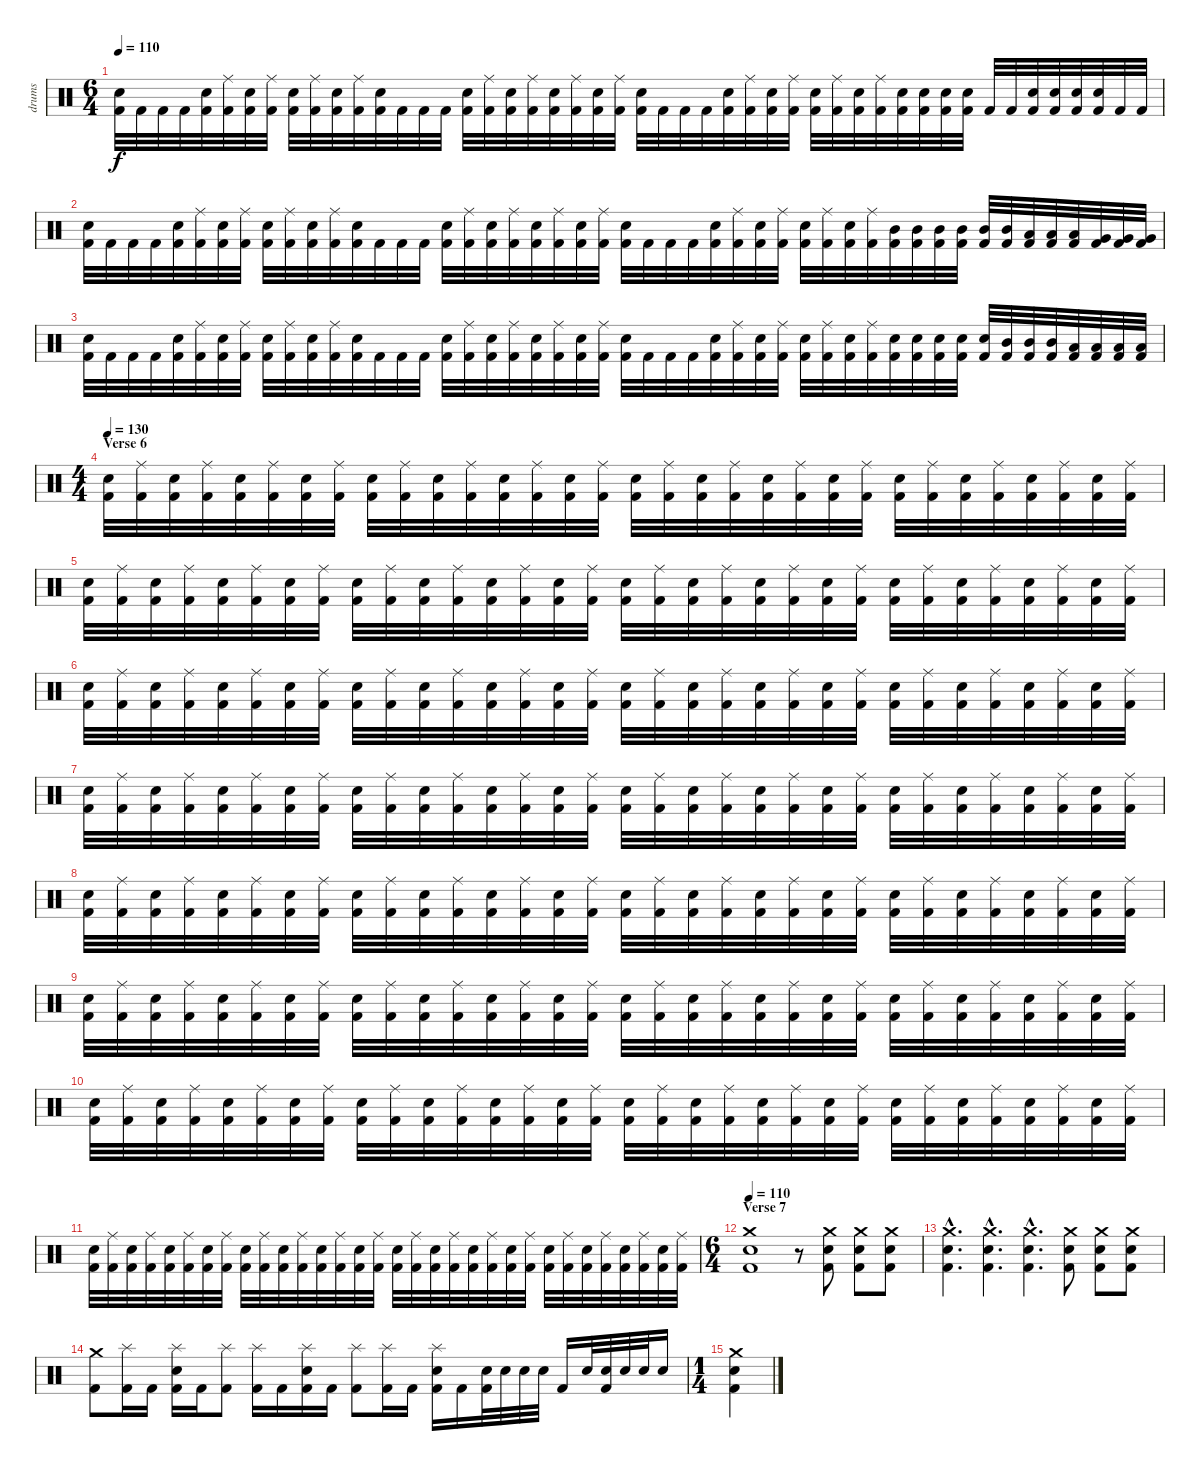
\track ("drums" "drums") {instrument percussion}
\staff {score}
\articulation defaults
\ts (6 4)
\tempo 110
\clef neutral
\ks c
("Electric Snare (hit)" "Kick (hit) 2").32{dy f} "Kick (hit) 2".32 "Kick (hit) 2".32 "Kick (hit) 2".32 ("Electric Snare (hit)" "Kick (hit) 2").32 ("Ride (middle)" "Kick (hit) 2").32 ("Electric Snare (hit)" "Kick (hit) 2").32 ("Ride (middle)" "Kick (hit) 2").32 ("Electric Snare (hit)" "Kick (hit) 2").32 ("Ride (middle)" "Kick (hit) 2").32 ("Electric Snare (hit)" "Kick (hit) 2").32 ("Ride (middle)" "Kick (hit) 2").32 ("Electric Snare (hit)" "Kick (hit) 2").32 "Kick (hit) 2".32 "Kick (hit) 2".32 "Kick (hit) 2".32 ("Electric Snare (hit)" "Kick (hit) 2").32 ("Ride (middle)" "Kick (hit) 2").32 ("Electric Snare (hit)" "Kick (hit) 2").32 ("Ride (middle)" "Kick (hit) 2").32 ("Electric Snare (hit)" "Kick (hit) 2").32 ("Ride (middle)" "Kick (hit) 2").32 ("Electric Snare (hit)" "Kick (hit) 2").32 ("Ride (middle)" "Kick (hit) 2").32 ("Electric Snare (hit)" "Kick (hit) 2").32 "Kick (hit) 2".32 "Kick (hit) 2".32 "Kick (hit) 2".32 ("Electric Snare (hit)" "Kick (hit) 2").32 ("Ride (middle)" "Kick (hit) 2").32 ("Electric Snare (hit)" "Kick (hit) 2").32 ("Ride (middle)" "Kick (hit) 2").32 ("Electric Snare (hit)" "Kick (hit) 2").32 ("Ride (middle)" "Kick (hit) 2").32 ("Electric Snare (hit)" "Kick (hit) 2").32 ("Ride (middle)" "Kick (hit) 2").32 ("Electric Snare (hit)" "Kick (hit) 2").32 ("Electric Snare (hit)" "Kick (hit) 2").32 ("Electric Snare (hit)" "Kick (hit) 2").32 ("Electric Snare (hit)" "Kick (hit) 2").32 "Kick (hit) 2".32 "Kick (hit) 2".32 ("Electric Snare (hit)" "Kick (hit) 2").32 ("Electric Snare (hit)" "Kick (hit) 2").32 ("Electric Snare (hit)" "Kick (hit) 2").32 ("Electric Snare (hit)" "Kick (hit) 2").32 "Kick (hit) 2".32 "Kick (hit) 2".32 |
("Electric Snare (hit)" "Kick (hit) 2").32 "Kick (hit) 2".32 "Kick (hit) 2".32 "Kick (hit) 2".32 ("Electric Snare (hit)" "Kick (hit) 2").32 ("Ride (middle)" "Kick (hit) 2").32 ("Electric Snare (hit)" "Kick (hit) 2").32 ("Ride (middle)" "Kick (hit) 2").32 ("Electric Snare (hit)" "Kick (hit) 2").32 ("Ride (middle)" "Kick (hit) 2").32 ("Electric Snare (hit)" "Kick (hit) 2").32 ("Ride (middle)" "Kick (hit) 2").32 ("Electric Snare (hit)" "Kick (hit) 2").32 "Kick (hit) 2".32 "Kick (hit) 2".32 "Kick (hit) 2".32 ("Electric Snare (hit)" "Kick (hit) 2").32 ("Ride (middle)" "Kick (hit) 2").32 ("Electric Snare (hit)" "Kick (hit) 2").32 ("Ride (middle)" "Kick (hit) 2").32 ("Electric Snare (hit)" "Kick (hit) 2").32 ("Ride (middle)" "Kick (hit) 2").32 ("Electric Snare (hit)" "Kick (hit) 2").32 ("Ride (middle)" "Kick (hit) 2").32 ("Electric Snare (hit)" "Kick (hit) 2").32 "Kick (hit) 2".32 "Kick (hit) 2".32 "Kick (hit) 2".32 ("Electric Snare (hit)" "Kick (hit) 2").32 ("Ride (middle)" "Kick (hit) 2").32 ("Electric Snare (hit)" "Kick (hit) 2").32 ("Ride (middle)" "Kick (hit) 2").32 ("Electric Snare (hit)" "Kick (hit) 2").32 ("Ride (middle)" "Kick (hit) 2").32 ("Electric Snare (hit)" "Kick (hit) 2").32 ("Ride (middle)" "Kick (hit) 2").32 ("Mid Tom (hit)" "Kick (hit) 2").32 ("Mid Tom (hit)" "Kick (hit) 2").32 ("Mid Tom (hit)" "Kick (hit) 2").32 ("Mid Tom (hit)" "Kick (hit) 2").32 ("Mid Tom (hit)" "Kick (hit) 2").32 ("Mid Tom (hit)" "Kick (hit) 2").32 ("Low Tom (hit)" "Kick (hit) 2").32 ("Low Tom (hit)" "Kick (hit) 2").32 ("Low Tom (hit)" "Kick (hit) 2").32 ("Very Low Tom (hit)" "Kick (hit) 2").32 ("Very Low Tom (hit)" "Kick (hit) 2").32 ("Very Low Tom (hit)" "Kick (hit) 2").32 |
("Electric Snare (hit)" "Kick (hit) 2").32 "Kick (hit) 2".32 "Kick (hit) 2".32 "Kick (hit) 2".32 ("Electric Snare (hit)" "Kick (hit) 2").32 ("Ride (middle)" "Kick (hit) 2").32 ("Electric Snare (hit)" "Kick (hit) 2").32 ("Ride (middle)" "Kick (hit) 2").32 ("Electric Snare (hit)" "Kick (hit) 2").32 ("Ride (middle)" "Kick (hit) 2").32 ("Electric Snare (hit)" "Kick (hit) 2").32 ("Ride (middle)" "Kick (hit) 2").32 ("Electric Snare (hit)" "Kick (hit) 2").32 "Kick (hit) 2".32 "Kick (hit) 2".32 "Kick (hit) 2".32 ("Electric Snare (hit)" "Kick (hit) 2").32 ("Ride (middle)" "Kick (hit) 2").32 ("Electric Snare (hit)" "Kick (hit) 2").32 ("Ride (middle)" "Kick (hit) 2").32 ("Electric Snare (hit)" "Kick (hit) 2").32 ("Ride (middle)" "Kick (hit) 2").32 ("Electric Snare (hit)" "Kick (hit) 2").32 ("Ride (middle)" "Kick (hit) 2").32 ("Electric Snare (hit)" "Kick (hit) 2").32 "Kick (hit) 2".32 "Kick (hit) 2".32 "Kick (hit) 2".32 ("Electric Snare (hit)" "Kick (hit) 2").32 ("Ride (middle)" "Kick (hit) 2").32 ("Electric Snare (hit)" "Kick (hit) 2").32 ("Ride (middle)" "Kick (hit) 2").32 ("Electric Snare (hit)" "Kick (hit) 2").32 ("Ride (middle)" "Kick (hit) 2").32 ("Electric Snare (hit)" "Kick (hit) 2").32 ("Ride (middle)" "Kick (hit) 2").32 ("Electric Snare (hit)" "Kick (hit) 2").32 ("Electric Snare (hit)" "Kick (hit) 2").32 ("Electric Snare (hit)" "Kick (hit) 2").32 ("Electric Snare (hit)" "Kick (hit) 2").32 ("Electric Snare (hit)" "Kick (hit) 2").32 ("Mid Tom (hit)" "Kick (hit) 2").32 ("Mid Tom (hit)" "Kick (hit) 2").32 ("Mid Tom (hit)" "Kick (hit) 2").32 ("Low Tom (hit)" "Kick (hit) 2").32 ("Low Tom (hit)" "Kick (hit) 2").32 ("Low Tom (hit)" "Kick (hit) 2").32 ("Low Tom (hit)" "Kick (hit) 2").32 |
\ts (4 4)
\section ("" "Verse 6")
\tempo 130
("Electric Snare (hit)" "Kick (hit) 2").32 ("Ride (middle)" "Kick (hit) 2").32 ("Electric Snare (hit)" "Kick (hit) 2").32 ("Ride (middle)" "Kick (hit) 2").32 ("Electric Snare (hit)" "Kick (hit) 2").32 ("Ride (middle)" "Kick (hit) 2").32 ("Electric Snare (hit)" "Kick (hit) 2").32 ("Ride (middle)" "Kick (hit) 2").32 ("Electric Snare (hit)" "Kick (hit) 2").32 ("Ride (middle)" "Kick (hit) 2").32 ("Electric Snare (hit)" "Kick (hit) 2").32 ("Ride (middle)" "Kick (hit) 2").32 ("Electric Snare (hit)" "Kick (hit) 2").32 ("Ride (middle)" "Kick (hit) 2").32 ("Electric Snare (hit)" "Kick (hit) 2").32 ("Ride (middle)" "Kick (hit) 2").32 ("Electric Snare (hit)" "Kick (hit) 2").32 ("Ride (middle)" "Kick (hit) 2").32 ("Electric Snare (hit)" "Kick (hit) 2").32 ("Ride (middle)" "Kick (hit) 2").32 ("Electric Snare (hit)" "Kick (hit) 2").32 ("Ride (middle)" "Kick (hit) 2").32 ("Electric Snare (hit)" "Kick (hit) 2").32 ("Ride (middle)" "Kick (hit) 2").32 ("Electric Snare (hit)" "Kick (hit) 2").32 ("Ride (middle)" "Kick (hit) 2").32 ("Electric Snare (hit)" "Kick (hit) 2").32 ("Ride (middle)" "Kick (hit) 2").32 ("Electric Snare (hit)" "Kick (hit) 2").32 ("Ride (middle)" "Kick (hit) 2").32 ("Electric Snare (hit)" "Kick (hit) 2").32 ("Ride (middle)" "Kick (hit) 2").32 |
("Electric Snare (hit)" "Kick (hit) 2").32 ("Ride (middle)" "Kick (hit) 2").32 ("Electric Snare (hit)" "Kick (hit) 2").32 ("Ride (middle)" "Kick (hit) 2").32 ("Electric Snare (hit)" "Kick (hit) 2").32 ("Ride (middle)" "Kick (hit) 2").32 ("Electric Snare (hit)" "Kick (hit) 2").32 ("Ride (middle)" "Kick (hit) 2").32 ("Electric Snare (hit)" "Kick (hit) 2").32 ("Ride (middle)" "Kick (hit) 2").32 ("Electric Snare (hit)" "Kick (hit) 2").32 ("Ride (middle)" "Kick (hit) 2").32 ("Electric Snare (hit)" "Kick (hit) 2").32 ("Ride (middle)" "Kick (hit) 2").32 ("Electric Snare (hit)" "Kick (hit) 2").32 ("Ride (middle)" "Kick (hit) 2").32 ("Electric Snare (hit)" "Kick (hit) 2").32 ("Ride (middle)" "Kick (hit) 2").32 ("Electric Snare (hit)" "Kick (hit) 2").32 ("Ride (middle)" "Kick (hit) 2").32 ("Electric Snare (hit)" "Kick (hit) 2").32 ("Ride (middle)" "Kick (hit) 2").32 ("Electric Snare (hit)" "Kick (hit) 2").32 ("Ride (middle)" "Kick (hit) 2").32 ("Electric Snare (hit)" "Kick (hit) 2").32 ("Ride (middle)" "Kick (hit) 2").32 ("Electric Snare (hit)" "Kick (hit) 2").32 ("Ride (middle)" "Kick (hit) 2").32 ("Electric Snare (hit)" "Kick (hit) 2").32 ("Ride (middle)" "Kick (hit) 2").32 ("Electric Snare (hit)" "Kick (hit) 2").32 ("Ride (middle)" "Kick (hit) 2").32 |
("Electric Snare (hit)" "Kick (hit) 2").32 ("Ride (middle)" "Kick (hit) 2").32 ("Electric Snare (hit)" "Kick (hit) 2").32 ("Ride (middle)" "Kick (hit) 2").32 ("Electric Snare (hit)" "Kick (hit) 2").32 ("Ride (middle)" "Kick (hit) 2").32 ("Electric Snare (hit)" "Kick (hit) 2").32 ("Ride (middle)" "Kick (hit) 2").32 ("Electric Snare (hit)" "Kick (hit) 2").32 ("Ride (middle)" "Kick (hit) 2").32 ("Electric Snare (hit)" "Kick (hit) 2").32 ("Ride (middle)" "Kick (hit) 2").32 ("Electric Snare (hit)" "Kick (hit) 2").32 ("Ride (middle)" "Kick (hit) 2").32 ("Electric Snare (hit)" "Kick (hit) 2").32 ("Ride (middle)" "Kick (hit) 2").32 ("Electric Snare (hit)" "Kick (hit) 2").32 ("Ride (middle)" "Kick (hit) 2").32 ("Electric Snare (hit)" "Kick (hit) 2").32 ("Ride (middle)" "Kick (hit) 2").32 ("Electric Snare (hit)" "Kick (hit) 2").32 ("Ride (middle)" "Kick (hit) 2").32 ("Electric Snare (hit)" "Kick (hit) 2").32 ("Ride (middle)" "Kick (hit) 2").32 ("Electric Snare (hit)" "Kick (hit) 2").32 ("Ride (middle)" "Kick (hit) 2").32 ("Electric Snare (hit)" "Kick (hit) 2").32 ("Ride (middle)" "Kick (hit) 2").32 ("Electric Snare (hit)" "Kick (hit) 2").32 ("Ride (middle)" "Kick (hit) 2").32 ("Electric Snare (hit)" "Kick (hit) 2").32 ("Ride (middle)" "Kick (hit) 2").32 |
("Electric Snare (hit)" "Kick (hit) 2").32 ("Ride (middle)" "Kick (hit) 2").32 ("Electric Snare (hit)" "Kick (hit) 2").32 ("Ride (middle)" "Kick (hit) 2").32 ("Electric Snare (hit)" "Kick (hit) 2").32 ("Ride (middle)" "Kick (hit) 2").32 ("Electric Snare (hit)" "Kick (hit) 2").32 ("Ride (middle)" "Kick (hit) 2").32 ("Electric Snare (hit)" "Kick (hit) 2").32 ("Ride (middle)" "Kick (hit) 2").32 ("Electric Snare (hit)" "Kick (hit) 2").32 ("Ride (middle)" "Kick (hit) 2").32 ("Electric Snare (hit)" "Kick (hit) 2").32 ("Ride (middle)" "Kick (hit) 2").32 ("Electric Snare (hit)" "Kick (hit) 2").32 ("Ride (middle)" "Kick (hit) 2").32 ("Electric Snare (hit)" "Kick (hit) 2").32 ("Ride (middle)" "Kick (hit) 2").32 ("Electric Snare (hit)" "Kick (hit) 2").32 ("Ride (middle)" "Kick (hit) 2").32 ("Electric Snare (hit)" "Kick (hit) 2").32 ("Ride (middle)" "Kick (hit) 2").32 ("Electric Snare (hit)" "Kick (hit) 2").32 ("Ride (middle)" "Kick (hit) 2").32 ("Electric Snare (hit)" "Kick (hit) 2").32 ("Ride (middle)" "Kick (hit) 2").32 ("Electric Snare (hit)" "Kick (hit) 2").32 ("Ride (middle)" "Kick (hit) 2").32 ("Electric Snare (hit)" "Kick (hit) 2").32 ("Ride (middle)" "Kick (hit) 2").32 ("Electric Snare (hit)" "Kick (hit) 2").32 ("Ride (middle)" "Kick (hit) 2").32 |
("Electric Snare (hit)" "Kick (hit) 2").32 ("Ride (middle)" "Kick (hit) 2").32 ("Electric Snare (hit)" "Kick (hit) 2").32 ("Ride (middle)" "Kick (hit) 2").32 ("Electric Snare (hit)" "Kick (hit) 2").32 ("Ride (middle)" "Kick (hit) 2").32 ("Electric Snare (hit)" "Kick (hit) 2").32 ("Ride (middle)" "Kick (hit) 2").32 ("Electric Snare (hit)" "Kick (hit) 2").32 ("Ride (middle)" "Kick (hit) 2").32 ("Electric Snare (hit)" "Kick (hit) 2").32 ("Ride (middle)" "Kick (hit) 2").32 ("Electric Snare (hit)" "Kick (hit) 2").32 ("Ride (middle)" "Kick (hit) 2").32 ("Electric Snare (hit)" "Kick (hit) 2").32 ("Ride (middle)" "Kick (hit) 2").32 ("Electric Snare (hit)" "Kick (hit) 2").32 ("Ride (middle)" "Kick (hit) 2").32 ("Electric Snare (hit)" "Kick (hit) 2").32 ("Ride (middle)" "Kick (hit) 2").32 ("Electric Snare (hit)" "Kick (hit) 2").32 ("Ride (middle)" "Kick (hit) 2").32 ("Electric Snare (hit)" "Kick (hit) 2").32 ("Ride (middle)" "Kick (hit) 2").32 ("Electric Snare (hit)" "Kick (hit) 2").32 ("Ride (middle)" "Kick (hit) 2").32 ("Electric Snare (hit)" "Kick (hit) 2").32 ("Ride (middle)" "Kick (hit) 2").32 ("Electric Snare (hit)" "Kick (hit) 2").32 ("Ride (middle)" "Kick (hit) 2").32 ("Electric Snare (hit)" "Kick (hit) 2").32 ("Ride (middle)" "Kick (hit) 2").32 |
("Electric Snare (hit)" "Kick (hit) 2").32 ("Ride (middle)" "Kick (hit) 2").32 ("Electric Snare (hit)" "Kick (hit) 2").32 ("Ride (middle)" "Kick (hit) 2").32 ("Electric Snare (hit)" "Kick (hit) 2").32 ("Ride (middle)" "Kick (hit) 2").32 ("Electric Snare (hit)" "Kick (hit) 2").32 ("Ride (middle)" "Kick (hit) 2").32 ("Electric Snare (hit)" "Kick (hit) 2").32 ("Ride (middle)" "Kick (hit) 2").32 ("Electric Snare (hit)" "Kick (hit) 2").32 ("Ride (middle)" "Kick (hit) 2").32 ("Electric Snare (hit)" "Kick (hit) 2").32 ("Ride (middle)" "Kick (hit) 2").32 ("Electric Snare (hit)" "Kick (hit) 2").32 ("Ride (middle)" "Kick (hit) 2").32 ("Electric Snare (hit)" "Kick (hit) 2").32 ("Ride (middle)" "Kick (hit) 2").32 ("Electric Snare (hit)" "Kick (hit) 2").32 ("Ride (middle)" "Kick (hit) 2").32 ("Electric Snare (hit)" "Kick (hit) 2").32 ("Ride (middle)" "Kick (hit) 2").32 ("Electric Snare (hit)" "Kick (hit) 2").32 ("Ride (middle)" "Kick (hit) 2").32 ("Electric Snare (hit)" "Kick (hit) 2").32 ("Ride (middle)" "Kick (hit) 2").32 ("Electric Snare (hit)" "Kick (hit) 2").32 ("Ride (middle)" "Kick (hit) 2").32 ("Electric Snare (hit)" "Kick (hit) 2").32 ("Ride (middle)" "Kick (hit) 2").32 ("Electric Snare (hit)" "Kick (hit) 2").32 ("Ride (middle)" "Kick (hit) 2").32 |
("Electric Snare (hit)" "Kick (hit) 2").32 ("Ride (middle)" "Kick (hit) 2").32 ("Electric Snare (hit)" "Kick (hit) 2").32 ("Ride (middle)" "Kick (hit) 2").32 ("Electric Snare (hit)" "Kick (hit) 2").32 ("Ride (middle)" "Kick (hit) 2").32 ("Electric Snare (hit)" "Kick (hit) 2").32 ("Ride (middle)" "Kick (hit) 2").32 ("Electric Snare (hit)" "Kick (hit) 2").32 ("Ride (middle)" "Kick (hit) 2").32 ("Electric Snare (hit)" "Kick (hit) 2").32 ("Ride (middle)" "Kick (hit) 2").32 ("Electric Snare (hit)" "Kick (hit) 2").32 ("Ride (middle)" "Kick (hit) 2").32 ("Electric Snare (hit)" "Kick (hit) 2").32 ("Ride (middle)" "Kick (hit) 2").32 ("Electric Snare (hit)" "Kick (hit) 2").32 ("Ride (middle)" "Kick (hit) 2").32 ("Electric Snare (hit)" "Kick (hit) 2").32 ("Ride (middle)" "Kick (hit) 2").32 ("Electric Snare (hit)" "Kick (hit) 2").32 ("Ride (middle)" "Kick (hit) 2").32 ("Electric Snare (hit)" "Kick (hit) 2").32 ("Ride (middle)" "Kick (hit) 2").32 ("Electric Snare (hit)" "Kick (hit) 2").32 ("Ride (middle)" "Kick (hit) 2").32 ("Electric Snare (hit)" "Kick (hit) 2").32 ("Ride (middle)" "Kick (hit) 2").32 ("Electric Snare (hit)" "Kick (hit) 2").32 ("Ride (middle)" "Kick (hit) 2").32 ("Electric Snare (hit)" "Kick (hit) 2").32 ("Ride (middle)" "Kick (hit) 2").32 |
("Electric Snare (hit)" "Kick (hit) 2").32 ("Ride (middle)" "Kick (hit) 2").32 ("Electric Snare (hit)" "Kick (hit) 2").32 ("Ride (middle)" "Kick (hit) 2").32 ("Electric Snare (hit)" "Kick (hit) 2").32 ("Ride (middle)" "Kick (hit) 2").32 ("Electric Snare (hit)" "Kick (hit) 2").32 ("Ride (middle)" "Kick (hit) 2").32 ("Electric Snare (hit)" "Kick (hit) 2").32 ("Ride (middle)" "Kick (hit) 2").32 ("Electric Snare (hit)" "Kick (hit) 2").32 ("Ride (middle)" "Kick (hit) 2").32 ("Electric Snare (hit)" "Kick (hit) 2").32 ("Ride (middle)" "Kick (hit) 2").32 ("Electric Snare (hit)" "Kick (hit) 2").32 ("Ride (middle)" "Kick (hit) 2").32 ("Electric Snare (hit)" "Kick (hit) 2").32 ("Ride (middle)" "Kick (hit) 2").32 ("Electric Snare (hit)" "Kick (hit) 2").32 ("Ride (middle)" "Kick (hit) 2").32 ("Electric Snare (hit)" "Kick (hit) 2").32 ("Ride (middle)" "Kick (hit) 2").32 ("Electric Snare (hit)" "Kick (hit) 2").32 ("Ride (middle)" "Kick (hit) 2").32 ("Electric Snare (hit)" "Kick (hit) 2").32 ("Ride (middle)" "Kick (hit) 2").32 ("Electric Snare (hit)" "Kick (hit) 2").32 ("Ride (middle)" "Kick (hit) 2").32 ("Electric Snare (hit)" "Kick (hit) 2").32 ("Ride (middle)" "Kick (hit) 2").32 ("Electric Snare (hit)" "Kick (hit) 2").32 ("Ride (middle)" "Kick (hit) 2").32 |
\ts (6 4)
\section ("" "Verse 7")
\tempo 110
("Crash medium (hit)" "Electric Snare (hit)" "Kick (hit) 2").1 r.8 ("Crash medium (hit)" "Electric Snare (hit)" "Kick (hit) 2").8 ("Crash medium (hit)" "Electric Snare (hit)" "Kick (hit) 2").8 ("Crash medium (hit)" "Electric Snare (hit)" "Kick (hit) 2").8 |
("Crash medium (hit)"{hac} "Electric Snare (hit)"{hac} "Kick (hit) 2"{hac}).4{d} ("Crash medium (hit)"{hac} "Electric Snare (hit)"{hac} "Kick (hit) 2"{hac}).4{d} ("Crash medium (hit)"{hac} "Electric Snare (hit)"{hac} "Kick (hit) 2"{hac}).4{d} ("Crash medium (hit)" "Electric Snare (hit)" "Kick (hit) 2").8 ("Crash medium (hit)" "Electric Snare (hit)" "Kick (hit) 2").8 ("Crash medium (hit)" "Electric Snare (hit)" "Kick (hit) 2").8 |
("Crash medium (hit)" "Kick (hit) 2").8 ("Splash (hit)" "Kick (hit) 2").16 "Kick (hit) 2".16 ("Splash (hit)" "Electric Snare (hit)" "Kick (hit) 2").16 "Kick (hit) 2".16 ("Splash (hit)" "Kick (hit) 2").8 ("Splash (hit)" "Kick (hit) 2").16 "Kick (hit) 2".16 ("Splash (hit)" "Electric Snare (hit)" "Kick (hit) 2").16 "Kick (hit) 2".16 ("Splash (hit)" "Kick (hit) 2").8 ("Splash (hit)" "Kick (hit) 2").16 "Kick (hit) 2".16 ("Splash (hit)" "Electric Snare (hit)" "Kick (hit) 2").16 "Kick (hit) 2".16 ("Electric Snare (hit)" "Kick (hit) 2").32 "Electric Snare (hit)".32 "Electric Snare (hit)".32 "Electric Snare (hit)".32 "Kick (hit) 2".16 "Electric Snare (hit)".32 ("Electric Snare (hit)" "Kick (hit) 2").32 "Electric Snare (hit)".32 "Electric Snare (hit)".32 "Electric Snare (hit)".16 |
\ts (1 4)
("Crash medium (hit)" "Electric Snare (hit)" "Kick (hit) 2").4
